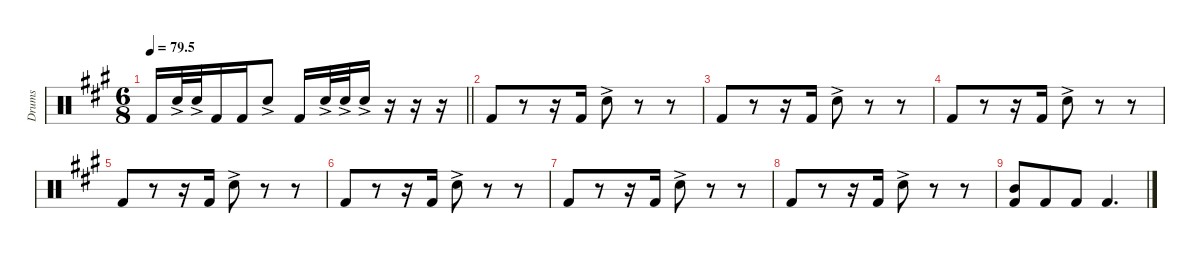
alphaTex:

\defaultSystemsLayout 4
\hideDynamics
\bracketExtendMode nobrackets
\otherSystemsTrackNameOrientation horizontal
\track ("F&S" "Drums") {instrument percussion}
\staff {score}
\articulation defaults
\ts (6 8)
\tempo
79.5
\accidentals auto
\clef neutral
\ottava regular
\simile none
\scale
0.333333
\barLineRight lightlight
\ks a "Kick (hit) 2"{acc forcenatural}.16{dy f} "Snare (hit) 2"{ac acc forcenatural}.32 "Snare (hit) 2"{ac acc forcenatural}.32 "Kick (hit) 2"{acc forcenatural}.16 "Kick (hit) 2"{acc forcenatural}.16 "Snare (hit) 2"{ac acc forcenatural}.8 "Kick (hit) 2"{acc forcenatural}.16 "Snare (hit) 2"{ac acc forcenatural}.32 "Snare (hit) 2"{ac acc forcenatural}.32 "Snare (hit) 2"{ac acc forcenatural}.16
r.16 r.16 r.16 |
\scale
0.333333 "Kick (hit) 2"{acc forcenatural}.8 r.8 r.16 "Kick (hit) 2"{acc forcenatural}.16 "Snare (hit) 2"{ac acc forcenatural}.8 r.8 r.8 |
\scale
0.333333 "Kick (hit) 2"{acc forcenatural}.8 r.8 r.16 "Kick (hit) 2"{acc forcenatural}.16 "Snare (hit) 2"{ac acc forcenatural}.8 r.8 r.8 |
\scale
0.333333 "Kick (hit) 2"{acc forcenatural}.8 r.8 r.16 "Kick (hit) 2"{acc forcenatural}.16 "Snare (hit) 2"{ac acc forcenatural}.8 r.8 r.8 |
\scale
0.333333 "Kick (hit) 2"{acc forcenatural}.8 r.8 r.16 "Kick (hit) 2"{acc forcenatural}.16 "Snare (hit) 2"{ac acc forcenatural}.8 r.8 r.8 |
\scale
0.333333 "Kick (hit) 2"{acc forcenatural}.8 r.8 r.16 "Kick (hit) 2"{acc forcenatural}.16 "Snare (hit) 2"{ac acc forcenatural}.8 r.8 r.8 |
\scale
0.333333 "Kick (hit) 2"{acc forcenatural}.8 r.8 r.16 "Kick (hit) 2"{acc forcenatural}.16 "Snare (hit) 2"{ac acc forcenatural}.8 r.8 r.8 |
\scale
0.333333 "Kick (hit) 2"{acc forcenatural}.8 r.8 r.16 "Kick (hit) 2"{acc forcenatural}.16 "Snare (hit) 2"{ac acc forcenatural}.8 r.8 r.8 |
\scale
0.333333 ("Mid Tom (hit)"{acc forcenatural} "Kick (hit) 2"{acc forcenatural}).8 "Kick (hit) 2"{acc forcenatural}.8 "Kick (hit) 2"{acc forcenatural}.8 "Kick (hit) 2"{acc forcenatural}.4{d} |
\scale
0.333333 |
\scale
0.333333 |
\scale
0.333333
